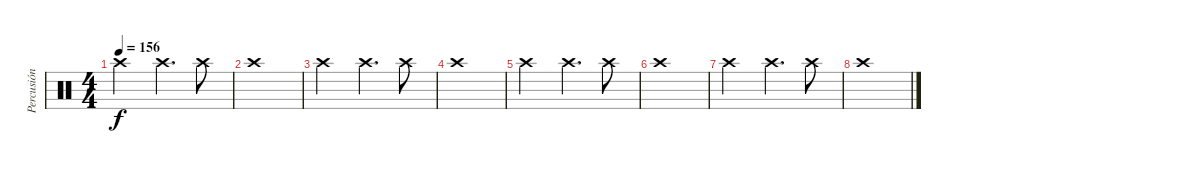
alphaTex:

\track ("Percusión" "Percusión") {instrument percussion}
\staff {score}
\articulation defaults
\ts (4 4)
\tempo 156
\clef neutral
\ks c "Crash high (hit)".2{dy f} "Crash high (hit)".4{d} "Crash high (hit)".8
|
"Crash high (hit)".1 |
"Crash high (hit)".2 "Crash high (hit)".4{d} "Crash high (hit)".8 |
"Crash high (hit)".1 |
"Crash high (hit)".2 "Crash high (hit)".4{d} "Crash high (hit)".8 |
"Crash high (hit)".1 |
"Crash high (hit)".2 "Crash high (hit)".4{d} "Crash high (hit)".8 |
"Crash high (hit)".1
